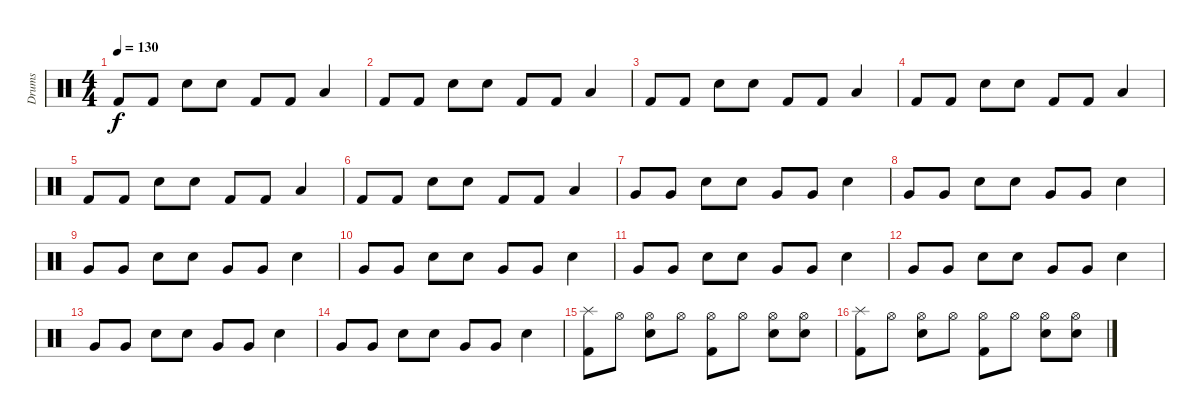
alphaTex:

\track ("Drums" "Drums") {instrument percussion}
\staff {score}
\articulation defaults
\ts (4 4)
\tempo 130
\clef neutral
\ks c "Kick (hit) 2".8{dy f} "Kick (hit) 2".8 "Electric Snare (hit)".8 "Electric Snare (hit)".8 "Kick (hit) 2".8 "Kick (hit) 2".8 "Low Floor Tom (hit)".4
|
"Kick (hit) 2".8 "Kick (hit) 2".8 "Electric Snare (hit)".8 "Electric Snare (hit)".8 "Kick (hit) 2".8 "Kick (hit) 2".8 "Low Floor Tom (hit)".4 |
"Kick (hit) 2".8 "Kick (hit) 2".8 "Electric Snare (hit)".8 "Electric Snare (hit)".8 "Kick (hit) 2".8 "Kick (hit) 2".8 "Low Floor Tom (hit)".4 |
"Kick (hit) 2".8 "Kick (hit) 2".8 "Electric Snare (hit)".8 "Electric Snare (hit)".8 "Kick (hit) 2".8 "Kick (hit) 2".8 "Low Floor Tom (hit)".4 |
"Kick (hit) 2".8 "Kick (hit) 2".8 "Electric Snare (hit)".8 "Electric Snare (hit)".8 "Kick (hit) 2".8 "Kick (hit) 2".8 "Low Floor Tom (hit)".4 |
"Kick (hit) 2".8 "Kick (hit) 2".8 "Electric Snare (hit)".8 "Electric Snare (hit)".8 "Kick (hit) 2".8 "Kick (hit) 2".8 "Low Floor Tom (hit)".4 |
"Very Low Tom (hit)".8 "Very Low Tom (hit)".8 "Snare (hit) 2".8 "Snare (hit) 2".8 "Very Low Tom (hit)".8 "Very Low Tom (hit)".8 "Snare (hit) 2".4 |
"Very Low Tom (hit)".8 "Very Low Tom (hit)".8 "Snare (hit) 2".8 "Snare (hit) 2".8 "Very Low Tom (hit)".8 "Very Low Tom (hit)".8 "Snare (hit) 2".4 |
"Very Low Tom (hit)".8 "Very Low Tom (hit)".8 "Snare (hit) 2".8 "Snare (hit) 2".8 "Very Low Tom (hit)".8 "Very Low Tom (hit)".8 "Snare (hit) 2".4 |
"Very Low Tom (hit)".8 "Very Low Tom (hit)".8 "Snare (hit) 2".8 "Snare (hit) 2".8 "Very Low Tom (hit)".8 "Very Low Tom (hit)".8 "Snare (hit) 2".4 |
"Very Low Tom (hit)".8 "Very Low Tom (hit)".8 "Snare (hit) 2".8 "Snare (hit) 2".8 "Very Low Tom (hit)".8 "Very Low Tom (hit)".8 "Snare (hit) 2".4 |
"Very Low Tom (hit)".8 "Very Low Tom (hit)".8 "Snare (hit) 2".8 "Snare (hit) 2".8 "Very Low Tom (hit)".8 "Very Low Tom (hit)".8 "Snare (hit) 2".4 |
"Very Low Tom (hit)".8 "Very Low Tom (hit)".8 "Snare (hit) 2".8 "Snare (hit) 2".8 "Very Low Tom (hit)".8 "Very Low Tom (hit)".8 "Snare (hit) 2".4 |
"Very Low Tom (hit)".8 "Very Low Tom (hit)".8 "Snare (hit) 2".8 "Snare (hit) 2".8 "Very Low Tom (hit)".8 "Very Low Tom (hit)".8 "Snare (hit) 2".4 |
("Splash (hit)" "Kick (hit) 2").8 "Hi-Hat (open)".8 ("Hi-Hat (open)" "Snare (hit) 2").8 "Hi-Hat (open)".8 ("Hi-Hat (open)" "Kick (hit) 2").8 "Hi-Hat (open)".8 ("Hi-Hat (open)" "Snare (hit) 2").8 ("Hi-Hat (open)" "Snare (hit) 2").8 |
("Splash (hit)" "Kick (hit) 2").8 "Hi-Hat (open)".8 ("Hi-Hat (open)" "Snare (hit) 2").8 "Hi-Hat (open)".8 ("Hi-Hat (open)" "Kick (hit) 2").8 "Hi-Hat (open)".8 ("Hi-Hat (open)" "Snare (hit) 2").8 ("Hi-Hat (open)" "Snare (hit) 2").8
